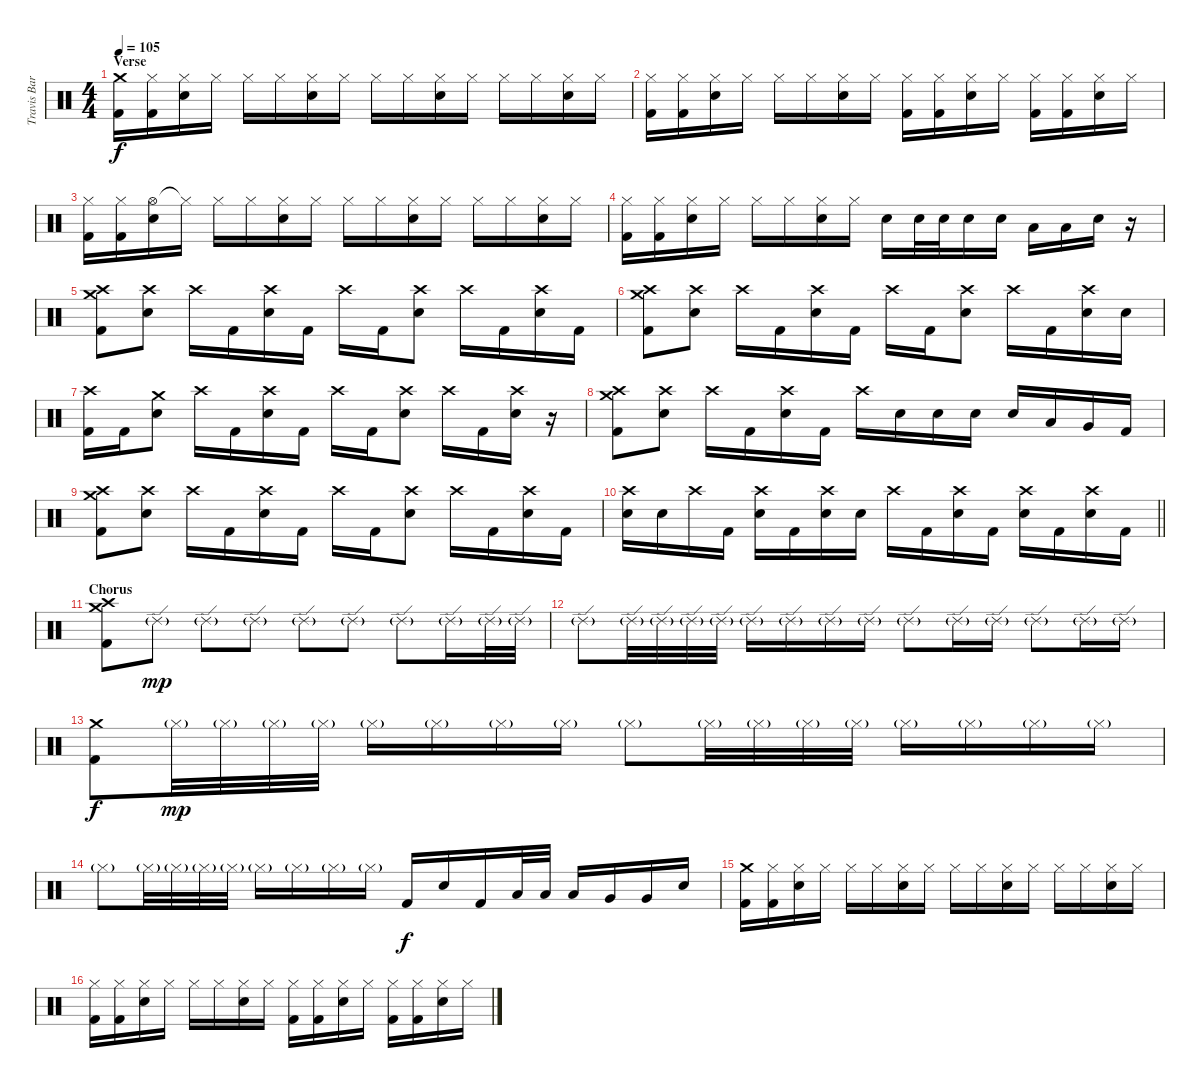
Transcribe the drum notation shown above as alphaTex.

\track ("Travis Barker" "Travis Bar") {instrument percussion}
\staff {score}
\articulation defaults
\ts (4 4)
\section ("" "Verse")
\tempo 105
\clef neutral
\ks c
("Crash medium (hit)" "Kick (hit) 2").16{dy f} ("Hi-Hat (closed)" "Kick (hit) 2").16 ("Hi-Hat (closed)" "Electric Snare (hit)").16 "Hi-Hat (closed)".16 "Hi-Hat (closed)".16 "Hi-Hat (closed)".16 ("Hi-Hat (closed)" "Electric Snare (hit)").16 "Hi-Hat (closed)".16 "Hi-Hat (closed)".16 "Hi-Hat (closed)".16 ("Hi-Hat (closed)" "Electric Snare (hit)").16 "Hi-Hat (closed)".16 "Hi-Hat (closed)".16 "Hi-Hat (closed)".16 ("Hi-Hat (closed)" "Electric Snare (hit)").16 "Hi-Hat (closed)".16 |
("Hi-Hat (closed)" "Kick (hit) 2").16 ("Hi-Hat (closed)" "Kick (hit) 2").16 ("Hi-Hat (closed)" "Electric Snare (hit)").16 "Hi-Hat (closed)".16 "Hi-Hat (closed)".16 "Hi-Hat (closed)".16 ("Hi-Hat (closed)" "Electric Snare (hit)").16 "Hi-Hat (closed)".16 ("Hi-Hat (closed)" "Kick (hit) 2").16 ("Hi-Hat (closed)" "Kick (hit) 2").16 ("Hi-Hat (closed)" "Electric Snare (hit)").16 "Hi-Hat (closed)".16 ("Hi-Hat (closed)" "Kick (hit) 2").16 ("Hi-Hat (closed)" "Kick (hit) 2").16 ("Hi-Hat (closed)" "Electric Snare (hit)").16 "Hi-Hat (closed)".16 |
("Hi-Hat (closed)" "Kick (hit) 2").16 ("Hi-Hat (closed)" "Kick (hit) 2").16 ("Hi-Hat (open)" "Electric Snare (hit)").16 "Hi-Hat (closed)"{t}.16 "Hi-Hat (closed)".16 "Hi-Hat (closed)".16 ("Hi-Hat (closed)" "Electric Snare (hit)").16 "Hi-Hat (closed)".16 "Hi-Hat (closed)".16 "Hi-Hat (closed)".16 ("Hi-Hat (closed)" "Electric Snare (hit)").16 "Hi-Hat (closed)".16 "Hi-Hat (closed)".16 "Hi-Hat (closed)".16 ("Hi-Hat (closed)" "Electric Snare (hit)").16 "Hi-Hat (closed)".16 |
("Hi-Hat (closed)" "Kick (hit) 2").16 ("Hi-Hat (closed)" "Kick (hit) 2").16 ("Hi-Hat (closed)" "Electric Snare (hit)").16 "Hi-Hat (closed)".16 "Hi-Hat (closed)".16 "Hi-Hat (closed)".16 ("Hi-Hat (closed)" "Electric Snare (hit)").16 "Hi-Hat (closed)".16 "Electric Snare (hit)".16 "Electric Snare (hit)".32 "Electric Snare (hit)".32 "Electric Snare (hit)".16 "Electric Snare (hit)".16 "Low Tom (hit)".16 "Low Tom (hit)".16 "Electric Snare (hit)".16 r.16 |
("Crash medium (hit)" "Crash high (hit)" "Kick (hit) 2").8 ("Crash high (hit)" "Electric Snare (hit)").8 "Crash high (hit)".16 "Kick (hit) 2".16 ("Crash high (hit)" "Electric Snare (hit)").16 "Kick (hit) 2".16 "Crash high (hit)".16 "Kick (hit) 2".16 ("Crash high (hit)" "Electric Snare (hit)").8 "Crash high (hit)".16 "Kick (hit) 2".16 ("Crash high (hit)" "Electric Snare (hit)").16 "Kick (hit) 2".16 |
("Crash medium (hit)" "Crash high (hit)" "Kick (hit) 2").8 ("Crash high (hit)" "Electric Snare (hit)").8 "Crash high (hit)".16 "Kick (hit) 2".16 ("Crash high (hit)" "Electric Snare (hit)").16 "Kick (hit) 2".16 "Crash high (hit)".16 "Kick (hit) 2".16 ("Crash high (hit)" "Electric Snare (hit)").8 "Crash high (hit)".16 "Kick (hit) 2".16 ("Crash high (hit)" "Electric Snare (hit)").16 "Electric Snare (hit)".16 |
("Crash high (hit)" "Kick (hit) 2").16 "Kick (hit) 2".16 ("Crash medium (hit)" "Electric Snare (hit)").8 "Crash high (hit)".16 "Kick (hit) 2".16 ("Crash high (hit)" "Electric Snare (hit)").16 "Kick (hit) 2".16 "Crash high (hit)".16 "Kick (hit) 2".16 ("Crash high (hit)" "Electric Snare (hit)").8 "Crash high (hit)".16 "Kick (hit) 2".16 ("Crash high (hit)" "Electric Snare (hit)").16 r.16 |
("Crash medium (hit)" "Crash high (hit)" "Kick (hit) 2").8 ("Crash high (hit)" "Electric Snare (hit)").8 "Crash high (hit)".16 "Kick (hit) 2".16 ("Crash high (hit)" "Electric Snare (hit)").16 "Kick (hit) 2".16 "Crash high (hit)".16 "Electric Snare (hit)".16 "Electric Snare (hit)".16 "Electric Snare (hit)".16 "Electric Snare (hit)".16 "Low Tom (hit)".16 "Very Low Tom (hit)".16 "Kick (hit) 2".16 |
("Crash medium (hit)" "Crash high (hit)" "Kick (hit) 2").8 ("Crash high (hit)" "Electric Snare (hit)").8 "Crash high (hit)".16 "Kick (hit) 2".16 ("Crash high (hit)" "Electric Snare (hit)").16 "Kick (hit) 2".16 "Crash high (hit)".16 "Kick (hit) 2".16 ("Crash high (hit)" "Electric Snare (hit)").8 "Crash high (hit)".16 "Kick (hit) 2".16 ("Crash high (hit)" "Electric Snare (hit)").16 "Kick (hit) 2".16 |
\barLineRight lightlight
("Crash high (hit)" "Electric Snare (hit)").16 "Electric Snare (hit)".16 "Crash high (hit)".16 "Kick (hit) 2".16 ("Crash high (hit)" "Electric Snare (hit)").16 "Kick (hit) 2".16 ("Crash high (hit)" "Electric Snare (hit)").16 "Electric Snare (hit)".16 "Crash high (hit)".16 "Kick (hit) 2".16 ("Crash high (hit)" "Electric Snare (hit)").16 "Kick (hit) 2".16 ("Crash high (hit)" "Electric Snare (hit)").16 "Kick (hit) 2".16 ("Crash high (hit)" "Electric Snare (hit)").16 "Kick (hit) 2".16 |
\section ("" "Chorus")
("Crash medium (hit)" "Crash high (hit)" "Kick (hit) 2").8 "Ride (edge) 2"{g}.8{dy mp} "Ride (edge) 2"{g}.8 "Ride (edge) 2"{g}.8 "Ride (edge) 2"{g}.8 "Ride (edge) 2"{g}.8 "Ride (edge) 2"{g}.8 "Ride (edge) 2"{g}.16 "Ride (edge) 2"{g}.32 "Ride (edge) 2"{g}.32 |
"Ride (edge) 2"{g}.8 "Ride (edge) 2"{g}.32 "Ride (edge) 2"{g}.32 "Ride (edge) 2"{g}.32 "Ride (edge) 2"{g}.32 "Ride (edge) 2"{g}.16 "Ride (edge) 2"{g}.16 "Ride (edge) 2"{g}.16 "Ride (edge) 2"{g}.16 "Ride (edge) 2"{g}.8 "Ride (edge) 2"{g}.16 "Ride (edge) 2"{g}.16 "Ride (edge) 2"{g}.8 "Ride (edge) 2"{g}.16 "Ride (edge) 2"{g}.16 |
("Crash medium (hit)" "Kick (hit) 2").8{dy f} "Hi-Hat (closed)"{g}.32{dy mp} "Hi-Hat (closed)"{g}.32 "Hi-Hat (closed)"{g}.32 "Hi-Hat (closed)"{g}.32 "Hi-Hat (closed)"{g}.16 "Hi-Hat (closed)"{g}.16 "Hi-Hat (closed)"{g}.16 "Hi-Hat (closed)"{g}.16 "Hi-Hat (closed)"{g}.8 "Hi-Hat (closed)"{g}.32 "Hi-Hat (closed)"{g}.32 "Hi-Hat (closed)"{g}.32 "Hi-Hat (closed)"{g}.32 "Hi-Hat (closed)"{g}.16 "Hi-Hat (closed)"{g}.16 "Hi-Hat (closed)"{g}.16 "Hi-Hat (closed)"{g}.16 |
"Hi-Hat (closed)"{g}.8 "Hi-Hat (closed)"{g}.32 "Hi-Hat (closed)"{g}.32 "Hi-Hat (closed)"{g}.32 "Hi-Hat (closed)"{g}.32 "Hi-Hat (closed)"{g}.16 "Hi-Hat (closed)"{g}.16 "Hi-Hat (closed)"{g}.16 "Hi-Hat (closed)"{g}.16 "Kick (hit) 2".16{dy f} "Electric Snare (hit)".16 "Kick (hit) 2".16 "Low Tom (hit)".32 "Low Tom (hit)".32 "Low Tom (hit)".16 "Very Low Tom (hit)".16 "Very Low Tom (hit)".16 "Electric Snare (hit)".16 |
("Crash medium (hit)" "Kick (hit) 2").16 ("Hi-Hat (closed)" "Kick (hit) 2").16 ("Hi-Hat (closed)" "Electric Snare (hit)").16 "Hi-Hat (closed)".16 "Hi-Hat (closed)".16 "Hi-Hat (closed)".16 ("Hi-Hat (closed)" "Electric Snare (hit)").16 "Hi-Hat (closed)".16 "Hi-Hat (closed)".16 "Hi-Hat (closed)".16 ("Hi-Hat (closed)" "Electric Snare (hit)").16 "Hi-Hat (closed)".16 "Hi-Hat (closed)".16 "Hi-Hat (closed)".16 ("Hi-Hat (closed)" "Electric Snare (hit)").16 "Hi-Hat (closed)".16 |
("Hi-Hat (closed)" "Kick (hit) 2").16 ("Hi-Hat (closed)" "Kick (hit) 2").16 ("Hi-Hat (closed)" "Electric Snare (hit)").16 "Hi-Hat (closed)".16 "Hi-Hat (closed)".16 "Hi-Hat (closed)".16 ("Hi-Hat (closed)" "Electric Snare (hit)").16 "Hi-Hat (closed)".16 ("Hi-Hat (closed)" "Kick (hit) 2").16 ("Hi-Hat (closed)" "Kick (hit) 2").16 ("Hi-Hat (closed)" "Electric Snare (hit)").16 "Hi-Hat (closed)".16 ("Hi-Hat (closed)" "Kick (hit) 2").16 ("Hi-Hat (closed)" "Kick (hit) 2").16 ("Hi-Hat (closed)" "Electric Snare (hit)").16 "Hi-Hat (closed)".16
